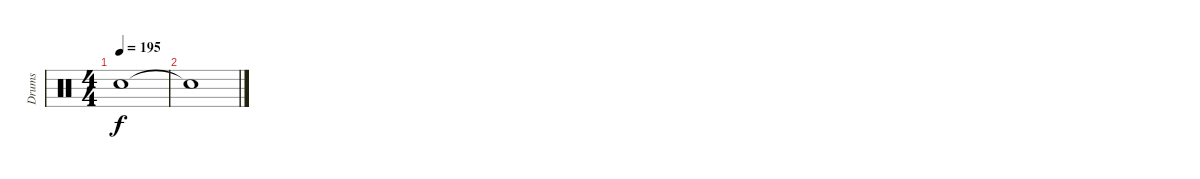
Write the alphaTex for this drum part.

\track ("Drums" "Drums") {instrument percussion}
\staff {score}
\articulation defaults
\ts (4 4)
\tempo 195
\clef neutral
\ks c "Snare (hit)"{t}.1{dy f}
|
"Snare (hit)"{t}.1
